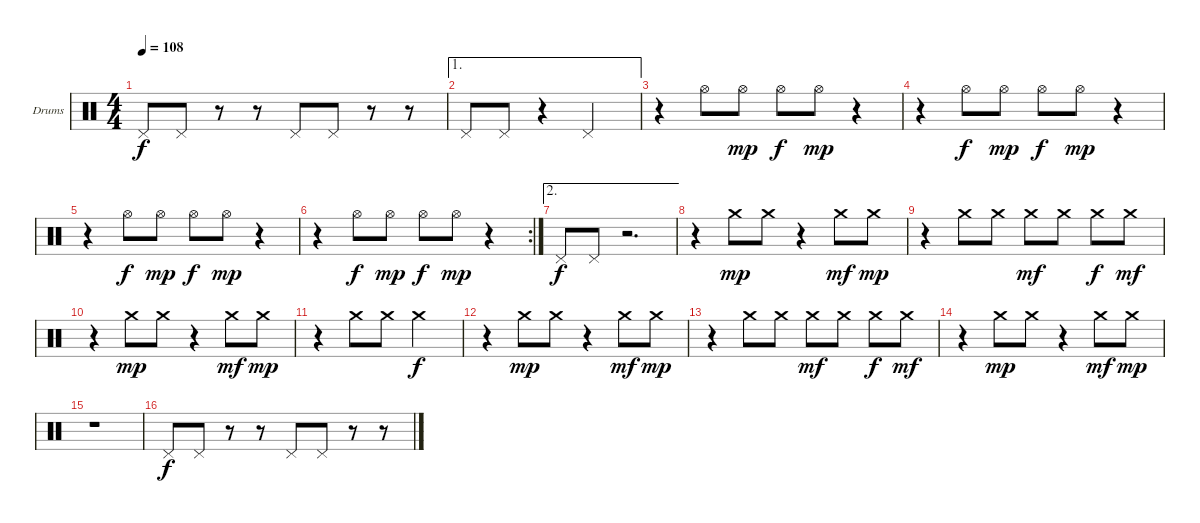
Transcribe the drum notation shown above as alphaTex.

\bracketExtendMode groupsimilarinstruments
\firstSystemTrackNameOrientation horizontal
\otherSystemsTrackNameOrientation horizontal
\track ("Drumkit" "Drums") {instrument percussion}
\staff {score}
\articulation defaults
\ts (4 4)
\tempo 108
\clef neutral
\ks c "Pedal Hi-Hat (hit)".8{dy f} "Pedal Hi-Hat (hit)".8
r.8 r.8 "Pedal Hi-Hat (hit)".8 "Pedal Hi-Hat (hit)".8 r.8 r.8 |
\ae 1 "Pedal Hi-Hat (hit)".8 "Pedal Hi-Hat (hit)".8
r.4 "Pedal Hi-Hat (hit)".2 |
r.4 "Hi-Hat (open)".8 "Hi-Hat (open)".8{dy mp} "Hi-Hat (open)".8{dy f} "Hi-Hat (open)".8{dy mp} r.4 |
r.4 "Hi-Hat (open)".8{dy f} "Hi-Hat (open)".8{dy mp} "Hi-Hat (open)".8{dy f} "Hi-Hat (open)".8{dy mp} r.4 |
r.4 "Hi-Hat (open)".8{dy f} "Hi-Hat (open)".8{dy mp} "Hi-Hat (open)".8{dy f} "Hi-Hat (open)".8{dy mp} r.4 |
\rc 2
r.4 "Hi-Hat (open)".8{dy f} "Hi-Hat (open)".8{dy mp} "Hi-Hat (open)".8{dy f} "Hi-Hat (open)".8{dy mp} r.4 |
\ae 2 "Pedal Hi-Hat (hit)".8{dy f} "Pedal Hi-Hat (hit)".8
r.2{d} |
r.4 "Crash medium (hit)".8{dy mp} "Crash medium (hit)".8 r.4 "Crash medium (hit)".8{dy mf} "Crash medium (hit)".8{dy mp} |
r.4 "Crash medium (hit)".8 "Crash medium (hit)".8 "Crash medium (hit)".8{dy mf} "Crash medium (hit)".8 "Crash medium (hit)".8{dy f} "Crash medium (hit)".8{dy mf} |
r.4 "Crash medium (hit)".8{dy mp} "Crash medium (hit)".8 r.4 "Crash medium (hit)".8{dy mf} "Crash medium (hit)".8{dy mp} |
r.4 "Crash medium (hit)".8 "Crash medium (hit)".8 "Crash medium (hit)".2{dy f} |
r.4 "Crash medium (hit)".8{dy mp} "Crash medium (hit)".8 r.4 "Crash medium (hit)".8{dy mf} "Crash medium (hit)".8{dy mp} |
r.4 "Crash medium (hit)".8 "Crash medium (hit)".8 "Crash medium (hit)".8{dy mf} "Crash medium (hit)".8 "Crash medium (hit)".8{dy f} "Crash medium (hit)".8{dy mf} |
r.4 "Crash medium (hit)".8{dy mp} "Crash medium (hit)".8 r.4 "Crash medium (hit)".8{dy mf} "Crash medium (hit)".8{dy mp} |
r.1 |
"Pedal Hi-Hat (hit)".8{dy f} "Pedal Hi-Hat (hit)".8 r.8 r.8 "Pedal Hi-Hat (hit)".8 "Pedal Hi-Hat (hit)".8 r.8 r.8
